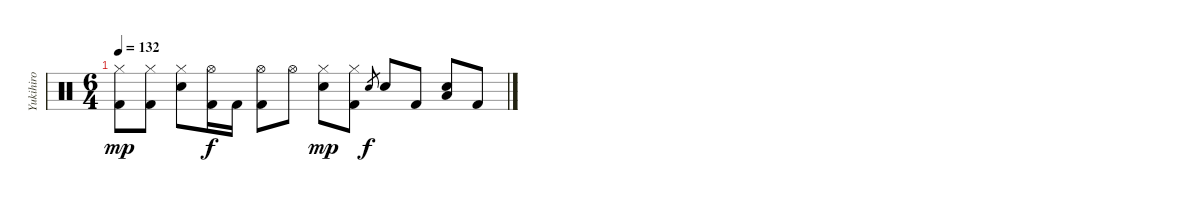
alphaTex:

\track ("Yukihiro" "Yukihiro") {instrument percussion}
\staff {score}
\articulation defaults
\ts (6 4)
\tempo 132
\clef neutral
\ks c
("Hi-Hat (closed)" "Kick (hit) 2").8{dy mp} ("Hi-Hat (closed)" "Kick (hit) 2").8 ("Hi-Hat (closed)" "Electric Snare (hit)").8 ("Hi-Hat (open)" "Kick (hit) 2").16{dy f} "Kick (hit) 2".16 ("Hi-Hat (open)" "Kick (hit) 2").8 "Hi-Hat (open)".8 ("Hi-Hat (closed)" "Electric Snare (hit)").8{dy mp} ("Hi-Hat (closed)" "Kick (hit) 2").8 "Electric Snare (hit)".8{gr dy f} "Electric Snare (hit)".8 "Kick (hit) 2".8 ("Electric Snare (hit)" "Low Tom (hit)").8 "Kick (hit) 2".8
